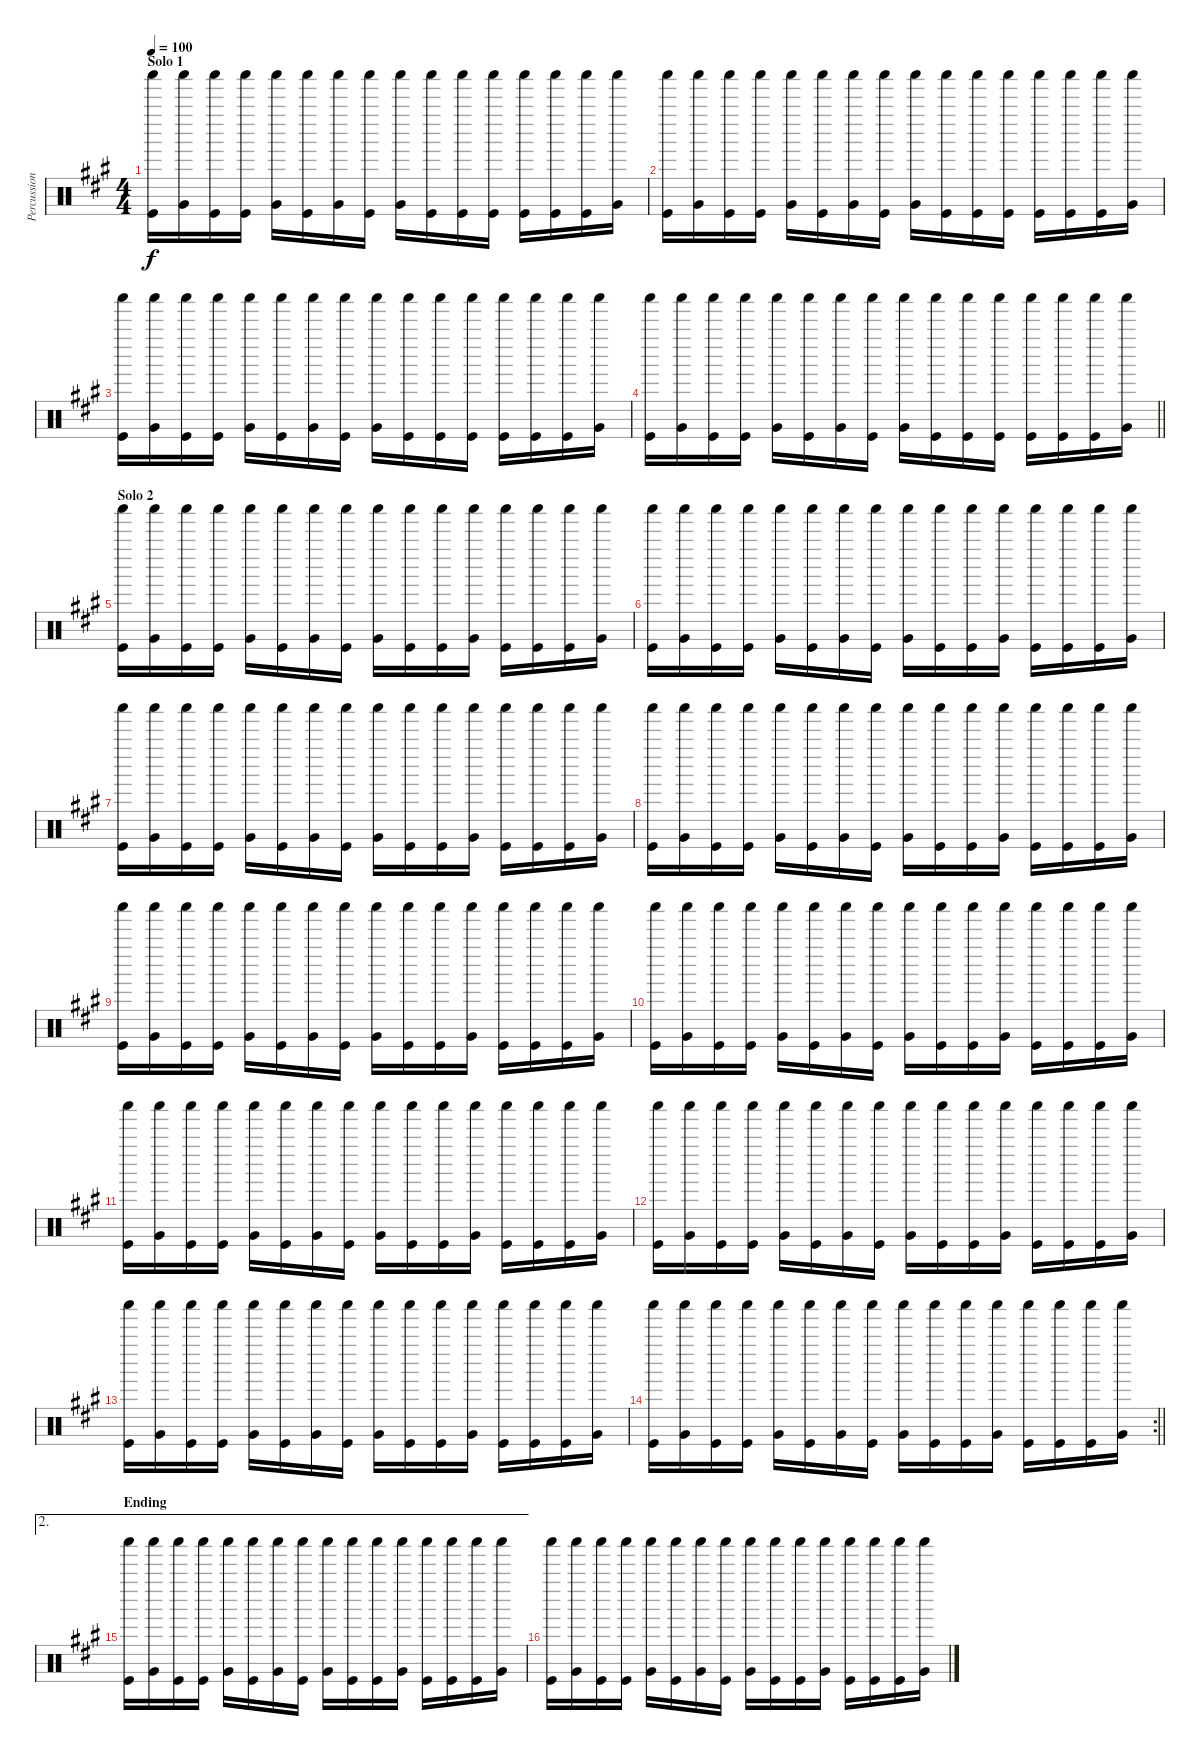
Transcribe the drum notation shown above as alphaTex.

\track ("Percussion" "Percussion") {instrument percussion}
\staff {score}
\articulation defaults
\ts (4 4)
\section ("" "Solo 1")
\tempo 100
\clef neutral
\ks a
("Shaker (hit)" "Kick (hit)").16{dy f} ("Shaker (hit)" "Very Low Tom (hit)").16 ("Shaker (hit)" "Kick (hit)").16 ("Shaker (hit)" "Kick (hit)").16 ("Shaker (hit)" "Very Low Tom (hit)").16 ("Shaker (hit)" "Kick (hit)").16 ("Shaker (hit)" "Very Low Tom (hit)").16 ("Shaker (hit)" "Kick (hit)").16 ("Shaker (hit)" "Very Low Tom (hit)").16 ("Shaker (hit)" "Kick (hit)").16 ("Shaker (hit)" "Kick (hit)").16 ("Shaker (hit)" "Kick (hit)").16 ("Shaker (hit)" "Kick (hit)").16 ("Shaker (hit)" "Kick (hit)").16 ("Shaker (hit)" "Kick (hit)").16 ("Shaker (hit)" "Very Low Tom (hit)").16 |
("Shaker (hit)" "Kick (hit)").16 ("Shaker (hit)" "Very Low Tom (hit)").16 ("Shaker (hit)" "Kick (hit)").16 ("Shaker (hit)" "Kick (hit)").16 ("Shaker (hit)" "Very Low Tom (hit)").16 ("Shaker (hit)" "Kick (hit)").16 ("Shaker (hit)" "Very Low Tom (hit)").16 ("Shaker (hit)" "Kick (hit)").16 ("Shaker (hit)" "Very Low Tom (hit)").16 ("Shaker (hit)" "Kick (hit)").16 ("Shaker (hit)" "Kick (hit)").16 ("Shaker (hit)" "Kick (hit)").16 ("Shaker (hit)" "Kick (hit)").16 ("Shaker (hit)" "Kick (hit)").16 ("Shaker (hit)" "Kick (hit)").16 ("Shaker (hit)" "Very Low Tom (hit)").16 |
("Shaker (hit)" "Kick (hit)").16 ("Shaker (hit)" "Very Low Tom (hit)").16 ("Shaker (hit)" "Kick (hit)").16 ("Shaker (hit)" "Kick (hit)").16 ("Shaker (hit)" "Very Low Tom (hit)").16 ("Shaker (hit)" "Kick (hit)").16 ("Shaker (hit)" "Very Low Tom (hit)").16 ("Shaker (hit)" "Kick (hit)").16 ("Shaker (hit)" "Very Low Tom (hit)").16 ("Shaker (hit)" "Kick (hit)").16 ("Shaker (hit)" "Kick (hit)").16 ("Shaker (hit)" "Kick (hit)").16 ("Shaker (hit)" "Kick (hit)").16 ("Shaker (hit)" "Kick (hit)").16 ("Shaker (hit)" "Kick (hit)").16 ("Shaker (hit)" "Very Low Tom (hit)").16 |
\barLineRight lightlight
("Shaker (hit)" "Kick (hit)").16 ("Shaker (hit)" "Very Low Tom (hit)").16 ("Shaker (hit)" "Kick (hit)").16 ("Shaker (hit)" "Kick (hit)").16 ("Shaker (hit)" "Very Low Tom (hit)").16 ("Shaker (hit)" "Kick (hit)").16 ("Shaker (hit)" "Very Low Tom (hit)").16 ("Shaker (hit)" "Kick (hit)").16 ("Shaker (hit)" "Very Low Tom (hit)").16 ("Shaker (hit)" "Kick (hit)").16 ("Shaker (hit)" "Kick (hit)").16 ("Shaker (hit)" "Kick (hit)").16 ("Shaker (hit)" "Kick (hit)").16 ("Shaker (hit)" "Kick (hit)").16 ("Shaker (hit)" "Kick (hit)").16 ("Shaker (hit)" "Very Low Tom (hit)").16 |
\section ("" "Solo 2")
("Shaker (hit)" "Kick (hit)").16 ("Shaker (hit)" "Very Low Tom (hit)").16 ("Shaker (hit)" "Kick (hit)").16 ("Shaker (hit)" "Kick (hit)").16 ("Shaker (hit)" "Very Low Tom (hit)").16 ("Shaker (hit)" "Kick (hit)").16 ("Shaker (hit)" "Very Low Tom (hit)").16 ("Shaker (hit)" "Kick (hit)").16 ("Shaker (hit)" "Very Low Tom (hit)").16 ("Shaker (hit)" "Kick (hit)").16 ("Shaker (hit)" "Kick (hit)").16 ("Shaker (hit)" "Very Low Tom (hit)").16 ("Shaker (hit)" "Kick (hit)").16 ("Shaker (hit)" "Kick (hit)").16 ("Shaker (hit)" "Kick (hit)").16 ("Shaker (hit)" "Very Low Tom (hit)").16 |
("Shaker (hit)" "Kick (hit)").16 ("Shaker (hit)" "Very Low Tom (hit)").16 ("Shaker (hit)" "Kick (hit)").16 ("Shaker (hit)" "Kick (hit)").16 ("Shaker (hit)" "Very Low Tom (hit)").16 ("Shaker (hit)" "Kick (hit)").16 ("Shaker (hit)" "Very Low Tom (hit)").16 ("Shaker (hit)" "Kick (hit)").16 ("Shaker (hit)" "Very Low Tom (hit)").16 ("Shaker (hit)" "Kick (hit)").16 ("Shaker (hit)" "Kick (hit)").16 ("Shaker (hit)" "Very Low Tom (hit)").16 ("Shaker (hit)" "Kick (hit)").16 ("Shaker (hit)" "Kick (hit)").16 ("Shaker (hit)" "Kick (hit)").16 ("Shaker (hit)" "Very Low Tom (hit)").16 |
("Shaker (hit)" "Kick (hit)").16 ("Shaker (hit)" "Very Low Tom (hit)").16 ("Shaker (hit)" "Kick (hit)").16 ("Shaker (hit)" "Kick (hit)").16 ("Shaker (hit)" "Very Low Tom (hit)").16 ("Shaker (hit)" "Kick (hit)").16 ("Shaker (hit)" "Very Low Tom (hit)").16 ("Shaker (hit)" "Kick (hit)").16 ("Shaker (hit)" "Very Low Tom (hit)").16 ("Shaker (hit)" "Kick (hit)").16 ("Shaker (hit)" "Kick (hit)").16 ("Shaker (hit)" "Very Low Tom (hit)").16 ("Shaker (hit)" "Kick (hit)").16 ("Shaker (hit)" "Kick (hit)").16 ("Shaker (hit)" "Kick (hit)").16 ("Shaker (hit)" "Very Low Tom (hit)").16 |
("Shaker (hit)" "Kick (hit)").16 ("Shaker (hit)" "Very Low Tom (hit)").16 ("Shaker (hit)" "Kick (hit)").16 ("Shaker (hit)" "Kick (hit)").16 ("Shaker (hit)" "Very Low Tom (hit)").16 ("Shaker (hit)" "Kick (hit)").16 ("Shaker (hit)" "Very Low Tom (hit)").16 ("Shaker (hit)" "Kick (hit)").16 ("Shaker (hit)" "Very Low Tom (hit)").16 ("Shaker (hit)" "Kick (hit)").16 ("Shaker (hit)" "Kick (hit)").16 ("Shaker (hit)" "Very Low Tom (hit)").16 ("Shaker (hit)" "Kick (hit)").16 ("Shaker (hit)" "Kick (hit)").16 ("Shaker (hit)" "Kick (hit)").16 ("Shaker (hit)" "Very Low Tom (hit)").16 |
("Shaker (hit)" "Kick (hit)").16 ("Shaker (hit)" "Very Low Tom (hit)").16 ("Shaker (hit)" "Kick (hit)").16 ("Shaker (hit)" "Kick (hit)").16 ("Shaker (hit)" "Very Low Tom (hit)").16 ("Shaker (hit)" "Kick (hit)").16 ("Shaker (hit)" "Very Low Tom (hit)").16 ("Shaker (hit)" "Kick (hit)").16 ("Shaker (hit)" "Very Low Tom (hit)").16 ("Shaker (hit)" "Kick (hit)").16 ("Shaker (hit)" "Kick (hit)").16 ("Shaker (hit)" "Very Low Tom (hit)").16 ("Shaker (hit)" "Kick (hit)").16 ("Shaker (hit)" "Kick (hit)").16 ("Shaker (hit)" "Kick (hit)").16 ("Shaker (hit)" "Very Low Tom (hit)").16 |
("Shaker (hit)" "Kick (hit)").16 ("Shaker (hit)" "Very Low Tom (hit)").16 ("Shaker (hit)" "Kick (hit)").16 ("Shaker (hit)" "Kick (hit)").16 ("Shaker (hit)" "Very Low Tom (hit)").16 ("Shaker (hit)" "Kick (hit)").16 ("Shaker (hit)" "Very Low Tom (hit)").16 ("Shaker (hit)" "Kick (hit)").16 ("Shaker (hit)" "Very Low Tom (hit)").16 ("Shaker (hit)" "Kick (hit)").16 ("Shaker (hit)" "Kick (hit)").16 ("Shaker (hit)" "Very Low Tom (hit)").16 ("Shaker (hit)" "Kick (hit)").16 ("Shaker (hit)" "Kick (hit)").16 ("Shaker (hit)" "Kick (hit)").16 ("Shaker (hit)" "Very Low Tom (hit)").16 |
("Shaker (hit)" "Kick (hit)").16 ("Shaker (hit)" "Very Low Tom (hit)").16 ("Shaker (hit)" "Kick (hit)").16 ("Shaker (hit)" "Kick (hit)").16 ("Shaker (hit)" "Very Low Tom (hit)").16 ("Shaker (hit)" "Kick (hit)").16 ("Shaker (hit)" "Very Low Tom (hit)").16 ("Shaker (hit)" "Kick (hit)").16 ("Shaker (hit)" "Very Low Tom (hit)").16 ("Shaker (hit)" "Kick (hit)").16 ("Shaker (hit)" "Kick (hit)").16 ("Shaker (hit)" "Very Low Tom (hit)").16 ("Shaker (hit)" "Kick (hit)").16 ("Shaker (hit)" "Kick (hit)").16 ("Shaker (hit)" "Kick (hit)").16 ("Shaker (hit)" "Very Low Tom (hit)").16 |
("Shaker (hit)" "Kick (hit)").16 ("Shaker (hit)" "Very Low Tom (hit)").16 ("Shaker (hit)" "Kick (hit)").16 ("Shaker (hit)" "Kick (hit)").16 ("Shaker (hit)" "Very Low Tom (hit)").16 ("Shaker (hit)" "Kick (hit)").16 ("Shaker (hit)" "Very Low Tom (hit)").16 ("Shaker (hit)" "Kick (hit)").16 ("Shaker (hit)" "Very Low Tom (hit)").16 ("Shaker (hit)" "Kick (hit)").16 ("Shaker (hit)" "Kick (hit)").16 ("Shaker (hit)" "Very Low Tom (hit)").16 ("Shaker (hit)" "Kick (hit)").16 ("Shaker (hit)" "Kick (hit)").16 ("Shaker (hit)" "Kick (hit)").16 ("Shaker (hit)" "Very Low Tom (hit)").16 |
("Shaker (hit)" "Kick (hit)").16 ("Shaker (hit)" "Very Low Tom (hit)").16 ("Shaker (hit)" "Kick (hit)").16 ("Shaker (hit)" "Kick (hit)").16 ("Shaker (hit)" "Very Low Tom (hit)").16 ("Shaker (hit)" "Kick (hit)").16 ("Shaker (hit)" "Very Low Tom (hit)").16 ("Shaker (hit)" "Kick (hit)").16 ("Shaker (hit)" "Very Low Tom (hit)").16 ("Shaker (hit)" "Kick (hit)").16 ("Shaker (hit)" "Kick (hit)").16 ("Shaker (hit)" "Very Low Tom (hit)").16 ("Shaker (hit)" "Kick (hit)").16 ("Shaker (hit)" "Kick (hit)").16 ("Shaker (hit)" "Kick (hit)").16 ("Shaker (hit)" "Very Low Tom (hit)").16 |
\rc 2
\barLineRight lightlight
("Shaker (hit)" "Kick (hit)").16 ("Shaker (hit)" "Very Low Tom (hit)").16 ("Shaker (hit)" "Kick (hit)").16 ("Shaker (hit)" "Kick (hit)").16 ("Shaker (hit)" "Very Low Tom (hit)").16 ("Shaker (hit)" "Kick (hit)").16 ("Shaker (hit)" "Very Low Tom (hit)").16 ("Shaker (hit)" "Kick (hit)").16 ("Shaker (hit)" "Very Low Tom (hit)").16 ("Shaker (hit)" "Kick (hit)").16 ("Shaker (hit)" "Kick (hit)").16 ("Shaker (hit)" "Very Low Tom (hit)").16 ("Shaker (hit)" "Kick (hit)").16 ("Shaker (hit)" "Kick (hit)").16 ("Shaker (hit)" "Kick (hit)").16 ("Shaker (hit)" "Very Low Tom (hit)").16 |
\ae 2
\section ("" "Ending")
("Shaker (hit)" "Kick (hit)").16 ("Shaker (hit)" "Very Low Tom (hit)").16 ("Shaker (hit)" "Kick (hit)").16 ("Shaker (hit)" "Kick (hit)").16 ("Shaker (hit)" "Very Low Tom (hit)").16 ("Shaker (hit)" "Kick (hit)").16 ("Shaker (hit)" "Very Low Tom (hit)").16 ("Shaker (hit)" "Kick (hit)").16 ("Shaker (hit)" "Very Low Tom (hit)").16 ("Shaker (hit)" "Kick (hit)").16 ("Shaker (hit)" "Kick (hit)").16 ("Shaker (hit)" "Very Low Tom (hit)").16 ("Shaker (hit)" "Kick (hit)").16 ("Shaker (hit)" "Kick (hit)").16 ("Shaker (hit)" "Kick (hit)").16 ("Shaker (hit)" "Very Low Tom (hit)").16 |
("Shaker (hit)" "Kick (hit)").16 ("Shaker (hit)" "Very Low Tom (hit)").16 ("Shaker (hit)" "Kick (hit)").16 ("Shaker (hit)" "Kick (hit)").16 ("Shaker (hit)" "Very Low Tom (hit)").16 ("Shaker (hit)" "Kick (hit)").16 ("Shaker (hit)" "Very Low Tom (hit)").16 ("Shaker (hit)" "Kick (hit)").16 ("Shaker (hit)" "Very Low Tom (hit)").16 ("Shaker (hit)" "Kick (hit)").16 ("Shaker (hit)" "Kick (hit)").16 ("Shaker (hit)" "Very Low Tom (hit)").16 ("Shaker (hit)" "Kick (hit)").16 ("Shaker (hit)" "Kick (hit)").16 ("Shaker (hit)" "Kick (hit)").16 ("Shaker (hit)" "Very Low Tom (hit)").16
